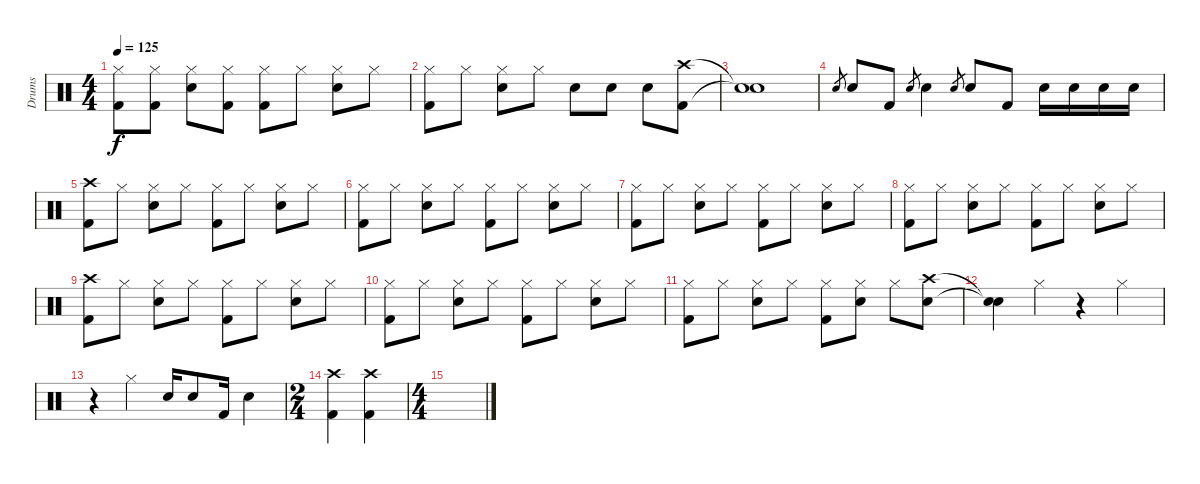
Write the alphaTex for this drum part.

\track ("Drums" "Drums") {instrument percussion}
\staff {score}
\articulation defaults
\ts (4 4)
\tempo 125
\clef neutral
\ks c
("Hi-Hat (closed)" "Kick (hit) 2").8{dy f} ("Hi-Hat (closed)" "Kick (hit) 2").8 ("Hi-Hat (closed)" "Snare (hit) 2").8 ("Hi-Hat (closed)" "Kick (hit) 2").8 ("Hi-Hat (closed)" "Kick (hit) 2").8 "Hi-Hat (closed)".8 ("Hi-Hat (closed)" "Snare (hit) 2").8 "Hi-Hat (closed)".8 |
("Hi-Hat (closed)" "Kick (hit) 2").8 "Hi-Hat (closed)".8 ("Hi-Hat (closed)" "Snare (hit) 2").8 "Hi-Hat (closed)".8 "Snare (hit) 2".8 "Snare (hit) 2".8 "Snare (hit) 2".8 ("Crash high (hit)" "Kick (hit) 2").8 |
("Snare (hit)"{t} "Snare (hit)"{t}).1 |
"Snare (hit) 2".8{gr} "Snare (hit) 2".8 "Kick (hit) 2".8 "Snare (hit) 2".8{gr} "Snare (hit) 2".4 "Snare (hit) 2".8{gr} "Snare (hit) 2".8 "Kick (hit) 2".8 "Snare (hit) 2".16 "Snare (hit) 2".16 "Snare (hit) 2".16 "Snare (hit) 2".16 |
("Crash high (hit)" "Kick (hit) 2").8 "Hi-Hat (closed)".8 ("Hi-Hat (closed)" "Snare (hit) 2").8 "Hi-Hat (closed)".8 ("Hi-Hat (closed)" "Kick (hit) 2").8 "Hi-Hat (closed)".8 ("Hi-Hat (closed)" "Snare (hit) 2").8 "Hi-Hat (closed)".8 |
("Hi-Hat (closed)" "Kick (hit) 2").8 "Hi-Hat (closed)".8 ("Hi-Hat (closed)" "Snare (hit) 2").8 "Hi-Hat (closed)".8 ("Hi-Hat (closed)" "Kick (hit) 2").8 "Hi-Hat (closed)".8 ("Hi-Hat (closed)" "Snare (hit) 2").8 "Hi-Hat (closed)".8 |
("Hi-Hat (closed)" "Kick (hit) 2").8 "Hi-Hat (closed)".8 ("Hi-Hat (closed)" "Snare (hit) 2").8 "Hi-Hat (closed)".8 ("Hi-Hat (closed)" "Kick (hit) 2").8 "Hi-Hat (closed)".8 ("Hi-Hat (closed)" "Snare (hit) 2").8 "Hi-Hat (closed)".8 |
("Hi-Hat (closed)" "Kick (hit) 2").8 "Hi-Hat (closed)".8 ("Hi-Hat (closed)" "Snare (hit) 2").8 "Hi-Hat (closed)".8 ("Hi-Hat (closed)" "Kick (hit) 2").8 "Hi-Hat (closed)".8 ("Hi-Hat (closed)" "Snare (hit) 2").8 "Hi-Hat (closed)".8 |
("Crash high (hit)" "Kick (hit) 2").8 "Hi-Hat (closed)".8 ("Hi-Hat (closed)" "Snare (hit) 2").8 "Hi-Hat (closed)".8 ("Hi-Hat (closed)" "Kick (hit) 2").8 "Hi-Hat (closed)".8 ("Hi-Hat (closed)" "Snare (hit) 2").8 "Hi-Hat (closed)".8 |
("Hi-Hat (closed)" "Kick (hit) 2").8 "Hi-Hat (closed)".8 ("Hi-Hat (closed)" "Snare (hit) 2").8 "Hi-Hat (closed)".8 ("Hi-Hat (closed)" "Kick (hit) 2").8 "Hi-Hat (closed)".8 ("Hi-Hat (closed)" "Snare (hit) 2").8 "Hi-Hat (closed)".8 |
("Hi-Hat (closed)" "Kick (hit) 2").8 "Hi-Hat (closed)".8 ("Hi-Hat (closed)" "Snare (hit) 2").8 "Hi-Hat (closed)".8 ("Hi-Hat (closed)" "Kick (hit) 2").8 ("Hi-Hat (closed)" "Snare (hit) 2").8 "Hi-Hat (closed)".8 ("Crash high (hit)" "Snare (hit) 2").8 |
("Snare (hit)"{t} "Snare (hit)"{t}).4 "Hi-Hat (closed)".4 r.4 "Hi-Hat (closed)".4 |
r.4 "Hi-Hat (closed)".4 "Snare (hit) 2".16 "Snare (hit) 2".8 "Kick (hit) 2".16 "Snare (hit) 2".4 |
\ts (2 4)
("Crash high (hit)" "Kick (hit) 2").4 ("Crash high (hit)" "Kick (hit) 2").4 |
\ts (4 4)
